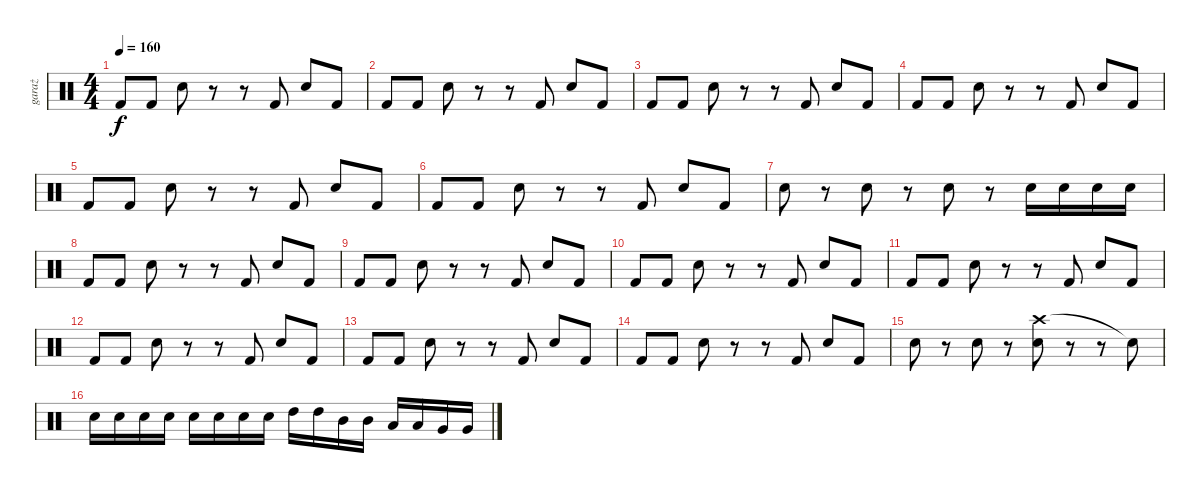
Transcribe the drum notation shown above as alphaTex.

\track ("garaż" "garaż") {instrument percussion}
\staff {score}
\articulation defaults
\ts (4 4)
\tempo 160
\clef neutral
\ks c "Kick (hit) 2".8{dy f} "Kick (hit) 2".8 "Snare (hit) 2".8
r.8 r.8 "Kick (hit) 2".8 "Snare (hit) 2".8 "Kick (hit) 2".8 |
"Kick (hit) 2".8 "Kick (hit) 2".8 "Snare (hit) 2".8 r.8 r.8 "Kick (hit) 2".8 "Snare (hit) 2".8 "Kick (hit) 2".8 |
"Kick (hit) 2".8 "Kick (hit) 2".8 "Snare (hit) 2".8 r.8 r.8 "Kick (hit) 2".8 "Snare (hit) 2".8 "Kick (hit) 2".8 |
"Kick (hit) 2".8 "Kick (hit) 2".8 "Snare (hit) 2".8 r.8 r.8 "Kick (hit) 2".8 "Snare (hit) 2".8 "Kick (hit) 2".8 |
"Kick (hit) 2".8 "Kick (hit) 2".8 "Snare (hit) 2".8 r.8 r.8 "Kick (hit) 2".8 "Snare (hit) 2".8 "Kick (hit) 2".8 |
"Kick (hit) 2".8 "Kick (hit) 2".8 "Snare (hit) 2".8 r.8 r.8 "Kick (hit) 2".8 "Snare (hit) 2".8 "Kick (hit) 2".8 |
"Snare (hit) 2".8 r.8 "Snare (hit) 2".8 r.8 "Snare (hit) 2".8 r.8 "Snare (hit) 2".16 "Snare (hit) 2".16 "Snare (hit) 2".16 "Snare (hit) 2".16 |
"Kick (hit) 2".8 "Kick (hit) 2".8 "Snare (hit) 2".8 r.8 r.8 "Kick (hit) 2".8 "Snare (hit) 2".8 "Kick (hit) 2".8 |
"Kick (hit) 2".8 "Kick (hit) 2".8 "Snare (hit) 2".8 r.8 r.8 "Kick (hit) 2".8 "Snare (hit) 2".8 "Kick (hit) 2".8 |
"Kick (hit) 2".8 "Kick (hit) 2".8 "Snare (hit) 2".8 r.8 r.8 "Kick (hit) 2".8 "Snare (hit) 2".8 "Kick (hit) 2".8 |
"Kick (hit) 2".8 "Kick (hit) 2".8 "Snare (hit) 2".8 r.8 r.8 "Kick (hit) 2".8 "Snare (hit) 2".8 "Kick (hit) 2".8 |
"Kick (hit) 2".8 "Kick (hit) 2".8 "Snare (hit) 2".8 r.8 r.8 "Kick (hit) 2".8 "Snare (hit) 2".8 "Kick (hit) 2".8 |
"Kick (hit) 2".8 "Kick (hit) 2".8 "Snare (hit) 2".8 r.8 r.8 "Kick (hit) 2".8 "Snare (hit) 2".8 "Kick (hit) 2".8 |
"Kick (hit) 2".8 "Kick (hit) 2".8 "Snare (hit) 2".8 r.8 r.8 "Kick (hit) 2".8 "Snare (hit) 2".8 "Kick (hit) 2".8 |
"Snare (hit) 2".8 r.8 "Snare (hit) 2".8 r.8 ("Crash high (hit)" "Snare (hit) 2").8 r.8 r.8 "Snare (hit)"{t}.8 |
"Snare (hit) 2".16 "Snare (hit) 2".16 "Snare (hit) 2".16 "Snare (hit) 2".16 "Snare (hit) 2".16 "Snare (hit) 2".16 "Snare (hit) 2".16 "Snare (hit) 2".16 "High Tom (hit)".16 "High Tom (hit)".16 "Mid Tom (hit)".16 "Mid Tom (hit)".16 "Low Tom (hit)".16 "Low Tom (hit)".16 "Very Low Tom (hit)".16 "Very Low Tom (hit)".16
